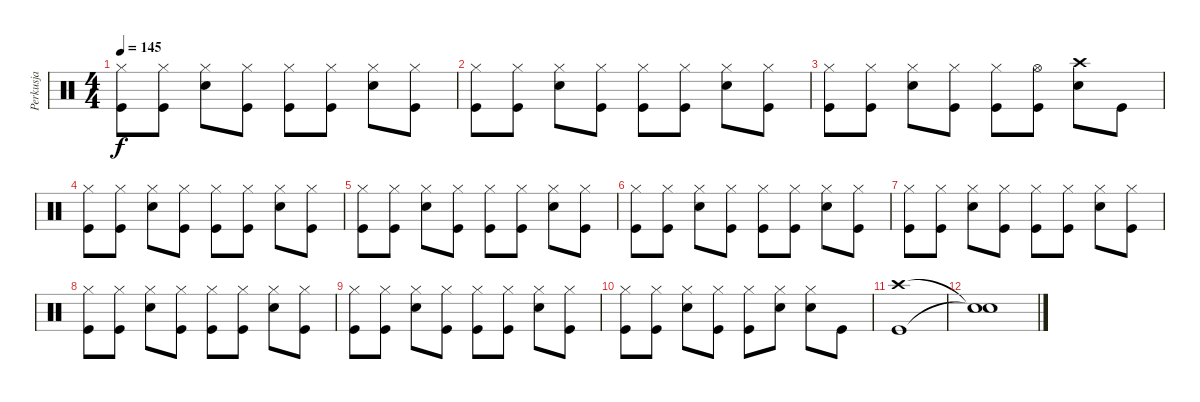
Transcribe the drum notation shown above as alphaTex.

\track ("Perkusja" "Perkusja") {instrument percussion}
\staff {score}
\articulation defaults
\ts (4 4)
\tempo 145
\clef neutral
\ks c
("Hi-Hat (closed)" "Kick (hit)").8{dy f} ("Hi-Hat (closed)" "Kick (hit)").8 ("Hi-Hat (closed)" "Snare (hit) 2").8 ("Hi-Hat (closed)" "Kick (hit)").8 ("Hi-Hat (closed)" "Kick (hit)").8 ("Hi-Hat (closed)" "Kick (hit)").8 ("Hi-Hat (closed)" "Snare (hit) 2").8 ("Hi-Hat (closed)" "Kick (hit)").8 |
("Hi-Hat (closed)" "Kick (hit)").8 ("Hi-Hat (closed)" "Kick (hit)").8 ("Hi-Hat (closed)" "Snare (hit) 2").8 ("Hi-Hat (closed)" "Kick (hit)").8 ("Hi-Hat (closed)" "Kick (hit)").8 ("Hi-Hat (closed)" "Kick (hit)").8 ("Hi-Hat (closed)" "Snare (hit) 2").8 ("Hi-Hat (closed)" "Kick (hit)").8 |
("Hi-Hat (closed)" "Kick (hit)").8 ("Hi-Hat (closed)" "Kick (hit)").8 ("Hi-Hat (closed)" "Snare (hit) 2").8 ("Hi-Hat (closed)" "Kick (hit)").8 ("Hi-Hat (closed)" "Kick (hit)").8 ("Hi-Hat (open)" "Kick (hit)").8 ("Crash high (hit)" "Snare (hit) 2").8 "Kick (hit)".8 |
("Hi-Hat (closed)" "Kick (hit)").8 ("Hi-Hat (closed)" "Kick (hit)").8 ("Hi-Hat (closed)" "Snare (hit) 2").8 ("Hi-Hat (closed)" "Kick (hit)").8 ("Hi-Hat (closed)" "Kick (hit)").8 ("Hi-Hat (closed)" "Kick (hit)").8 ("Hi-Hat (closed)" "Snare (hit) 2").8 ("Hi-Hat (closed)" "Kick (hit)").8 |
("Hi-Hat (closed)" "Kick (hit)").8 ("Hi-Hat (closed)" "Kick (hit)").8 ("Hi-Hat (closed)" "Snare (hit) 2").8 ("Hi-Hat (closed)" "Kick (hit)").8 ("Hi-Hat (closed)" "Kick (hit)").8 ("Hi-Hat (closed)" "Kick (hit)").8 ("Hi-Hat (closed)" "Snare (hit) 2").8 ("Hi-Hat (closed)" "Kick (hit)").8 |
("Hi-Hat (closed)" "Kick (hit)").8 ("Hi-Hat (closed)" "Kick (hit)").8 ("Hi-Hat (closed)" "Snare (hit) 2").8 ("Hi-Hat (closed)" "Kick (hit)").8 ("Hi-Hat (closed)" "Kick (hit)").8 ("Hi-Hat (closed)" "Kick (hit)").8 ("Hi-Hat (closed)" "Snare (hit) 2").8 ("Hi-Hat (closed)" "Kick (hit)").8 |
("Hi-Hat (closed)" "Kick (hit)").8 ("Hi-Hat (closed)" "Kick (hit)").8 ("Hi-Hat (closed)" "Snare (hit) 2").8 ("Hi-Hat (closed)" "Kick (hit)").8 ("Hi-Hat (closed)" "Kick (hit)").8 ("Hi-Hat (closed)" "Kick (hit)").8 ("Hi-Hat (closed)" "Snare (hit) 2").8 ("Hi-Hat (closed)" "Kick (hit)").8 |
("Hi-Hat (closed)" "Kick (hit)").8 ("Hi-Hat (closed)" "Kick (hit)").8 ("Hi-Hat (closed)" "Snare (hit) 2").8 ("Hi-Hat (closed)" "Kick (hit)").8 ("Hi-Hat (closed)" "Kick (hit)").8 ("Hi-Hat (closed)" "Kick (hit)").8 ("Hi-Hat (closed)" "Snare (hit) 2").8 ("Hi-Hat (closed)" "Kick (hit)").8 |
("Hi-Hat (closed)" "Kick (hit)").8 ("Hi-Hat (closed)" "Kick (hit)").8 ("Hi-Hat (closed)" "Snare (hit) 2").8 ("Hi-Hat (closed)" "Kick (hit)").8 ("Hi-Hat (closed)" "Kick (hit)").8 ("Hi-Hat (closed)" "Kick (hit)").8 ("Hi-Hat (closed)" "Snare (hit) 2").8 ("Hi-Hat (closed)" "Kick (hit)").8 |
("Hi-Hat (closed)" "Kick (hit)").8 ("Hi-Hat (closed)" "Kick (hit)").8 ("Hi-Hat (closed)" "Snare (hit) 2").8 ("Hi-Hat (closed)" "Kick (hit)").8 ("Hi-Hat (closed)" "Kick (hit)").8 ("Hi-Hat (closed)" "Snare (hit) 2").8 ("Hi-Hat (closed)" "Snare (hit) 2").8 "Kick (hit)".8 |
("Crash high (hit)" "Kick (hit)").1 |
("Snare (hit)"{t} "Snare (hit)"{t}).1
